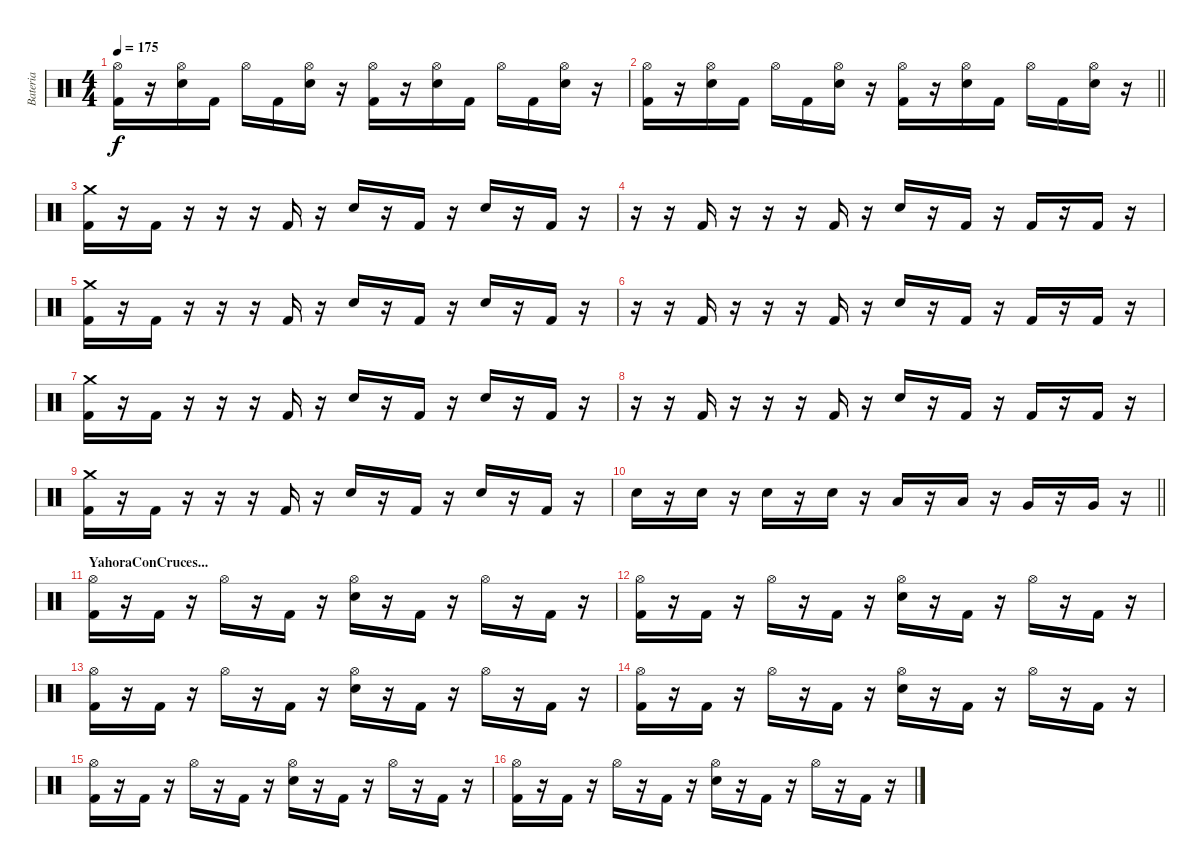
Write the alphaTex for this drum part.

\track ("Bateria" "Bateria") {instrument percussion}
\staff {score}
\articulation defaults
\ts (4 4)
\tempo 175
\clef neutral
\ks c
("Hi-Hat (open)" "Kick (hit) 2").16{dy f} r.16 ("Hi-Hat (open)" "Snare (hit) 2").16 "Kick (hit) 2".16 "Hi-Hat (open)".16 "Kick (hit) 2".16 ("Hi-Hat (open)" "Snare (hit) 2").16 r.16 ("Hi-Hat (open)" "Kick (hit) 2").16 r.16 ("Hi-Hat (open)" "Snare (hit) 2").16 "Kick (hit) 2".16 "Hi-Hat (open)".16 "Kick (hit) 2".16 ("Hi-Hat (open)" "Snare (hit) 2").16 r.16 |
\barLineRight lightlight
("Hi-Hat (open)" "Kick (hit) 2").16 r.16 ("Hi-Hat (open)" "Snare (hit) 2").16 "Kick (hit) 2".16 "Hi-Hat (open)".16 "Kick (hit) 2".16 ("Hi-Hat (open)" "Snare (hit) 2").16 r.16 ("Hi-Hat (open)" "Kick (hit) 2").16 r.16 ("Hi-Hat (open)" "Snare (hit) 2").16 "Kick (hit) 2".16 "Hi-Hat (open)".16 "Kick (hit) 2".16 ("Hi-Hat (open)" "Snare (hit) 2").16 r.16 |
("Crash medium (hit)" "Kick (hit) 2").16 r.16 "Kick (hit) 2".16 r.16 r.16 r.16 "Kick (hit) 2".16 r.16 "Snare (hit) 2".16 r.16 "Kick (hit) 2".16 r.16 "Snare (hit) 2".16 r.16 "Kick (hit) 2".16 r.16 |
r.16 r.16 "Kick (hit) 2".16 r.16 r.16 r.16 "Kick (hit) 2".16 r.16 "Snare (hit) 2".16 r.16 "Kick (hit) 2".16 r.16 "Kick (hit) 2".16 r.16 "Kick (hit) 2".16 r.16 |
("Crash medium (hit)" "Kick (hit) 2").16 r.16 "Kick (hit) 2".16 r.16 r.16 r.16 "Kick (hit) 2".16 r.16 "Snare (hit) 2".16 r.16 "Kick (hit) 2".16 r.16 "Snare (hit) 2".16 r.16 "Kick (hit) 2".16 r.16 |
r.16 r.16 "Kick (hit) 2".16 r.16 r.16 r.16 "Kick (hit) 2".16 r.16 "Snare (hit) 2".16 r.16 "Kick (hit) 2".16 r.16 "Kick (hit) 2".16 r.16 "Kick (hit) 2".16 r.16 |
("Crash medium (hit)" "Kick (hit) 2").16 r.16 "Kick (hit) 2".16 r.16 r.16 r.16 "Kick (hit) 2".16 r.16 "Snare (hit) 2".16 r.16 "Kick (hit) 2".16 r.16 "Snare (hit) 2".16 r.16 "Kick (hit) 2".16 r.16 |
r.16 r.16 "Kick (hit) 2".16 r.16 r.16 r.16 "Kick (hit) 2".16 r.16 "Snare (hit) 2".16 r.16 "Kick (hit) 2".16 r.16 "Kick (hit) 2".16 r.16 "Kick (hit) 2".16 r.16 |
("Crash medium (hit)" "Kick (hit) 2").16 r.16 "Kick (hit) 2".16 r.16 r.16 r.16 "Kick (hit) 2".16 r.16 "Snare (hit) 2".16 r.16 "Kick (hit) 2".16 r.16 "Snare (hit) 2".16 r.16 "Kick (hit) 2".16 r.16 |
\barLineRight lightlight "Snare (hit) 2".16
r.16 "Snare (hit) 2".16 r.16 "Snare (hit) 2".16 r.16 "Snare (hit) 2".16 r.16 "Low Tom (hit)".16 r.16 "Low Tom (hit)".16 r.16 "Very Low Tom (hit)".16 r.16 "Very Low Tom (hit)".16 r.16 |
\section ("" "YahoraConCruces...")
("Hi-Hat (open)" "Kick (hit) 2").16 r.16 "Kick (hit) 2".16 r.16 "Hi-Hat (open)".16 r.16 "Kick (hit) 2".16 r.16 ("Hi-Hat (open)" "Snare (hit) 2").16 r.16 "Kick (hit) 2".16 r.16 "Hi-Hat (open)".16 r.16 "Kick (hit) 2".16 r.16 |
("Hi-Hat (open)" "Kick (hit) 2").16 r.16 "Kick (hit) 2".16 r.16 "Hi-Hat (open)".16 r.16 "Kick (hit) 2".16 r.16 ("Hi-Hat (open)" "Snare (hit) 2").16 r.16 "Kick (hit) 2".16 r.16 "Hi-Hat (open)".16 r.16 "Kick (hit) 2".16 r.16 |
("Hi-Hat (open)" "Kick (hit) 2").16 r.16 "Kick (hit) 2".16 r.16 "Hi-Hat (open)".16 r.16 "Kick (hit) 2".16 r.16 ("Hi-Hat (open)" "Snare (hit) 2").16 r.16 "Kick (hit) 2".16 r.16 "Hi-Hat (open)".16 r.16 "Kick (hit) 2".16 r.16 |
("Hi-Hat (open)" "Kick (hit) 2").16 r.16 "Kick (hit) 2".16 r.16 "Hi-Hat (open)".16 r.16 "Kick (hit) 2".16 r.16 ("Hi-Hat (open)" "Snare (hit) 2").16 r.16 "Kick (hit) 2".16 r.16 "Hi-Hat (open)".16 r.16 "Kick (hit) 2".16 r.16 |
("Hi-Hat (open)" "Kick (hit) 2").16 r.16 "Kick (hit) 2".16 r.16 "Hi-Hat (open)".16 r.16 "Kick (hit) 2".16 r.16 ("Hi-Hat (open)" "Snare (hit) 2").16 r.16 "Kick (hit) 2".16 r.16 "Hi-Hat (open)".16 r.16 "Kick (hit) 2".16 r.16 |
("Hi-Hat (open)" "Kick (hit) 2").16 r.16 "Kick (hit) 2".16 r.16 "Hi-Hat (open)".16 r.16 "Kick (hit) 2".16 r.16 ("Hi-Hat (open)" "Snare (hit) 2").16 r.16 "Kick (hit) 2".16 r.16 "Hi-Hat (open)".16 r.16 "Kick (hit) 2".16 r.16
